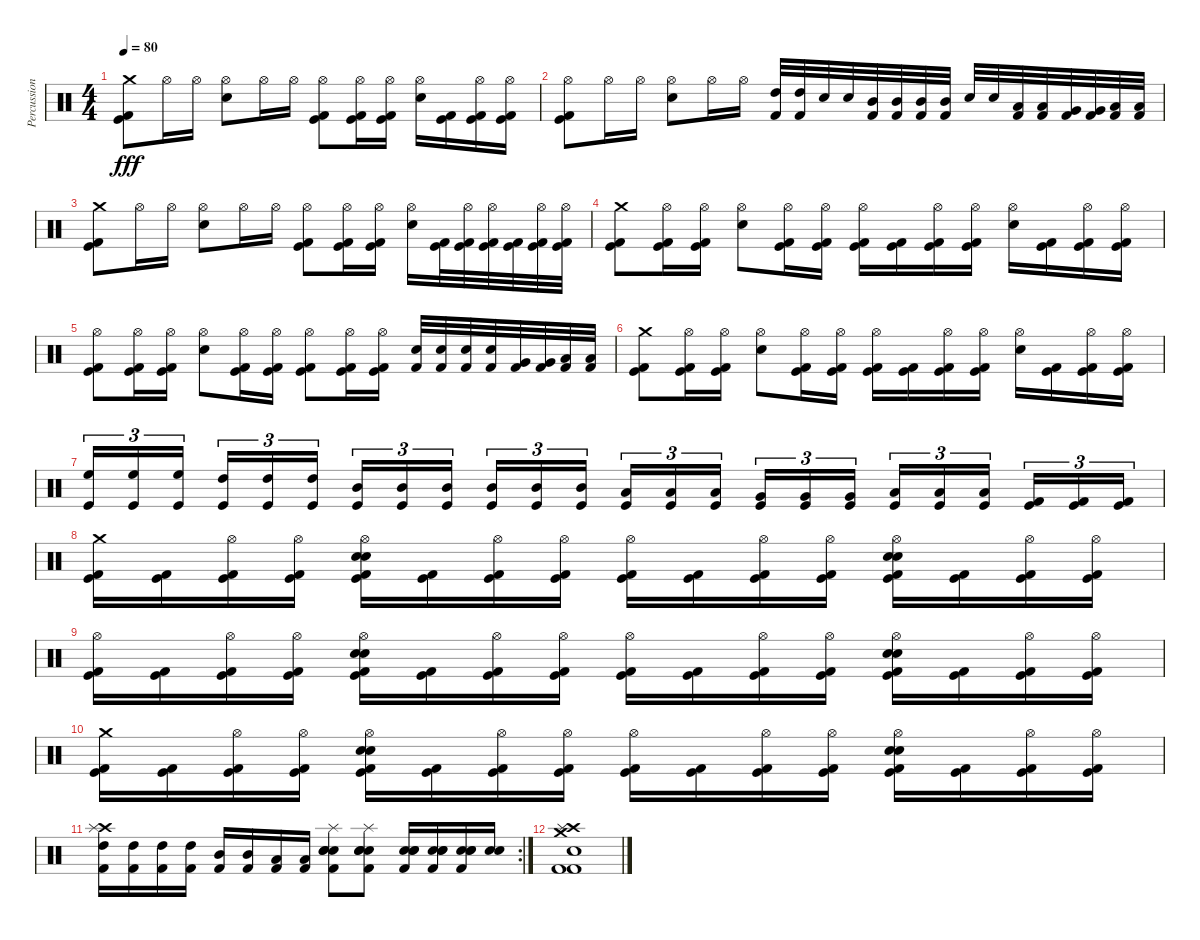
\track ("Percussion" "Percussion") {instrument percussion}
\staff {score}
\articulation defaults
\ts (4 4)
\tempo 80
\clef neutral
\ks c
("Crash medium (hit)" "Kick (hit) 2" "Kick (hit)").8{dy fff} "Hi-Hat (open)".16 "Hi-Hat (open)".16 ("Hi-Hat (open)" "Electric Snare (hit)").8 "Hi-Hat (open)".16 "Hi-Hat (open)".16 ("Hi-Hat (open)" "Kick (hit) 2" "Kick (hit)").8 ("Hi-Hat (open)" "Kick (hit) 2" "Kick (hit)").16 ("Hi-Hat (open)" "Kick (hit) 2" "Kick (hit)").16 ("Hi-Hat (open)" "Electric Snare (hit)").16 ("Kick (hit) 2" "Kick (hit)").16 ("Hi-Hat (open)" "Kick (hit) 2" "Kick (hit)").16 ("Hi-Hat (open)" "Kick (hit) 2" "Kick (hit)").16 |
("Hi-Hat (open)" "Kick (hit) 2" "Kick (hit)").8 "Hi-Hat (open)".16 "Hi-Hat (open)".16 ("Hi-Hat (open)" "Electric Snare (hit)").8 "Hi-Hat (open)".16 "Hi-Hat (open)".16 ("High Tom (hit)" "Kick (hit) 2").32 ("High Tom (hit)" "Kick (hit) 2").32 "Electric Snare (hit)".32 "Electric Snare (hit)".32 ("Mid Tom (hit)" "Kick (hit) 2").32 ("Mid Tom (hit)" "Kick (hit) 2").32 ("Mid Tom (hit)" "Kick (hit) 2").32 ("Mid Tom (hit)" "Kick (hit) 2").32 "Electric Snare (hit)".32 "Electric Snare (hit)".32 ("Low Tom (hit)" "Kick (hit) 2").32 ("Low Tom (hit)" "Kick (hit) 2").32 ("Very Low Tom (hit)" "Kick (hit) 2").32 ("Very Low Tom (hit)" "Kick (hit) 2").32 ("Low Floor Tom (hit)" "Kick (hit) 2").32 ("Low Floor Tom (hit)" "Kick (hit) 2").32 |
("Crash medium (hit)" "Kick (hit) 2" "Kick (hit)").8 "Hi-Hat (open)".16 "Hi-Hat (open)".16 ("Hi-Hat (open)" "Electric Snare (hit)").8 "Hi-Hat (open)".16 "Hi-Hat (open)".16 ("Hi-Hat (open)" "Kick (hit) 2" "Kick (hit)").8 ("Hi-Hat (open)" "Kick (hit) 2" "Kick (hit)").16 ("Hi-Hat (open)" "Kick (hit) 2" "Kick (hit)").16 ("Hi-Hat (open)" "Electric Snare (hit)").16 ("Kick (hit) 2" "Kick (hit)").32 ("Hi-Hat (open)" "Kick (hit) 2" "Kick (hit)").32 ("Hi-Hat (open)" "Kick (hit) 2" "Kick (hit)").32 ("Kick (hit) 2" "Kick (hit)").32 ("Hi-Hat (open)" "Kick (hit) 2" "Kick (hit)").32 ("Hi-Hat (open)" "Kick (hit) 2" "Kick (hit)").32 |
("Crash medium (hit)" "Kick (hit) 2" "Kick (hit)").8 ("Hi-Hat (open)" "Kick (hit) 2" "Kick (hit)").16 ("Hi-Hat (open)" "Kick (hit) 2" "Kick (hit)").16 ("Hi-Hat (open)" "Electric Snare (hit)").8 ("Hi-Hat (open)" "Kick (hit) 2" "Kick (hit)").16 ("Hi-Hat (open)" "Kick (hit) 2" "Kick (hit)").16 ("Hi-Hat (open)" "Kick (hit) 2" "Kick (hit)").16 ("Kick (hit) 2" "Kick (hit)").16 ("Hi-Hat (open)" "Kick (hit) 2" "Kick (hit)").16 ("Hi-Hat (open)" "Kick (hit) 2" "Kick (hit)").16 ("Hi-Hat (open)" "Electric Snare (hit)").16 ("Kick (hit) 2" "Kick (hit)").16 ("Hi-Hat (open)" "Kick (hit) 2" "Kick (hit)").16 ("Hi-Hat (open)" "Kick (hit) 2" "Kick (hit)").16 |
("Hi-Hat (open)" "Kick (hit) 2" "Kick (hit)").8 ("Hi-Hat (open)" "Kick (hit) 2" "Kick (hit)").16 ("Hi-Hat (open)" "Kick (hit) 2" "Kick (hit)").16 ("Hi-Hat (open)" "Electric Snare (hit)").8 ("Hi-Hat (open)" "Kick (hit) 2" "Kick (hit)").16 ("Hi-Hat (open)" "Kick (hit) 2" "Kick (hit)").16 ("Hi-Hat (open)" "Kick (hit) 2" "Kick (hit)").8 ("Hi-Hat (open)" "Kick (hit) 2" "Kick (hit)").16 ("Hi-Hat (open)" "Kick (hit) 2" "Kick (hit)").16 ("Kick (hit) 2" "Electric Snare (hit)").32 ("Kick (hit) 2" "Electric Snare (hit)").32 ("Kick (hit) 2" "Electric Snare (hit)").32 ("Kick (hit) 2" "Electric Snare (hit)").32 ("Kick (hit) 2" "Very Low Tom (hit)").32 ("Kick (hit) 2" "Very Low Tom (hit)").32 ("Kick (hit) 2" "Low Floor Tom (hit)").32 ("Kick (hit) 2" "Low Floor Tom (hit)").32 |
("Crash medium (hit)" "Kick (hit) 2" "Kick (hit)").8 ("Hi-Hat (open)" "Kick (hit) 2" "Kick (hit)").16 ("Hi-Hat (open)" "Kick (hit) 2" "Kick (hit)").16 ("Hi-Hat (open)" "Electric Snare (hit)").8 ("Hi-Hat (open)" "Kick (hit) 2" "Kick (hit)").16 ("Hi-Hat (open)" "Kick (hit) 2" "Kick (hit)").16 ("Hi-Hat (open)" "Kick (hit) 2" "Kick (hit)").16 ("Kick (hit) 2" "Kick (hit)").16 ("Hi-Hat (open)" "Kick (hit) 2" "Kick (hit)").16 ("Hi-Hat (open)" "Kick (hit) 2" "Kick (hit)").16 ("Hi-Hat (open)" "Electric Snare (hit)").16 ("Kick (hit) 2" "Kick (hit)").16 ("Hi-Hat (open)" "Kick (hit) 2" "Kick (hit)").16 ("Hi-Hat (open)" "Kick (hit) 2" "Kick (hit)").16 |
("High Floor Tom (hit)" "Kick (hit)").16{tu (3 2)} ("High Floor Tom (hit)" "Kick (hit)").16{tu (3 2)} ("High Floor Tom (hit)" "Kick (hit)").16{tu (3 2) beam splitsecondary} ("High Tom (hit)" "Kick (hit)").16{tu (3 2)} ("High Tom (hit)" "Kick (hit)").16{tu (3 2)} ("High Tom (hit)" "Kick (hit)").16{tu (3 2)} ("Mid Tom (hit)" "Kick (hit)").16{tu (3 2)} ("Mid Tom (hit)" "Kick (hit)").16{tu (3 2)} ("Mid Tom (hit)" "Kick (hit)").16{tu (3 2) beam splitsecondary} ("Mid Tom (hit)" "Kick (hit)").16{tu (3 2)} ("Mid Tom (hit)" "Kick (hit)").16{tu (3 2)} ("Mid Tom (hit)" "Kick (hit)").16{tu (3 2)} ("Low Tom (hit)" "Kick (hit)").16{tu (3 2)} ("Low Tom (hit)" "Kick (hit)").16{tu (3 2)} ("Low Tom (hit)" "Kick (hit)").16{tu (3 2) beam splitsecondary} ("Very Low Tom (hit)" "Kick (hit)").16{tu (3 2)} ("Very Low Tom (hit)" "Kick (hit)").16{tu (3 2)} ("Very Low Tom (hit)" "Kick (hit)").16{tu (3 2)} ("Low Floor Tom (hit)" "Kick (hit)").16{tu (3 2)} ("Low Floor Tom (hit)" "Kick (hit)").16{tu (3 2)} ("Low Floor Tom (hit)" "Kick (hit)").16{tu (3 2) beam splitsecondary} ("Kick (hit)" "Kick (hit) 2").16{tu (3 2)} ("Kick (hit)" "Kick (hit) 2").16{tu (3 2)} ("Kick (hit)" "Kick (hit) 2").16{tu (3 2)} |
("Crash medium (hit)" "Kick (hit) 2" "Kick (hit)").16 ("Kick (hit) 2" "Kick (hit)").16 ("Hi-Hat (open)" "Kick (hit) 2" "Kick (hit)").16 ("Hi-Hat (open)" "Kick (hit) 2" "Kick (hit)").16 ("Hi-Hat (open)" "Electric Snare (hit)" "Electric Snare (hit)" "Kick (hit) 2" "Kick (hit)").16 ("Kick (hit) 2" "Kick (hit)").16 ("Hi-Hat (open)" "Kick (hit) 2" "Kick (hit)").16 ("Hi-Hat (open)" "Kick (hit) 2" "Kick (hit)").16 ("Hi-Hat (open)" "Kick (hit) 2" "Kick (hit)").16 ("Kick (hit) 2" "Kick (hit)").16 ("Hi-Hat (open)" "Kick (hit) 2" "Kick (hit)").16 ("Hi-Hat (open)" "Kick (hit) 2" "Kick (hit)").16 ("Hi-Hat (open)" "Electric Snare (hit)" "Electric Snare (hit)" "Kick (hit) 2" "Kick (hit)").16 ("Kick (hit) 2" "Kick (hit)").16 ("Hi-Hat (open)" "Kick (hit) 2" "Kick (hit)").16 ("Hi-Hat (open)" "Kick (hit) 2" "Kick (hit)").16 |
("Hi-Hat (open)" "Kick (hit) 2" "Kick (hit)").16 ("Kick (hit) 2" "Kick (hit)").16 ("Hi-Hat (open)" "Kick (hit) 2" "Kick (hit)").16 ("Hi-Hat (open)" "Kick (hit) 2" "Kick (hit)").16 ("Hi-Hat (open)" "Electric Snare (hit)" "Electric Snare (hit)" "Kick (hit) 2" "Kick (hit)").16 ("Kick (hit) 2" "Kick (hit)").16 ("Hi-Hat (open)" "Kick (hit) 2" "Kick (hit)").16 ("Hi-Hat (open)" "Kick (hit) 2" "Kick (hit)").16 ("Hi-Hat (open)" "Kick (hit) 2" "Kick (hit)").16 ("Kick (hit) 2" "Kick (hit)").16 ("Hi-Hat (open)" "Kick (hit) 2" "Kick (hit)").16 ("Hi-Hat (open)" "Kick (hit) 2" "Kick (hit)").16 ("Hi-Hat (open)" "Electric Snare (hit)" "Electric Snare (hit)" "Kick (hit) 2" "Kick (hit)").16 ("Kick (hit) 2" "Kick (hit)").16 ("Hi-Hat (open)" "Kick (hit) 2" "Kick (hit)").16 ("Hi-Hat (open)" "Kick (hit) 2" "Kick (hit)").16 |
("Crash medium (hit)" "Kick (hit) 2" "Kick (hit)").16 ("Kick (hit) 2" "Kick (hit)").16 ("Hi-Hat (open)" "Kick (hit) 2" "Kick (hit)").16 ("Hi-Hat (open)" "Kick (hit) 2" "Kick (hit)").16 ("Hi-Hat (open)" "Electric Snare (hit)" "Electric Snare (hit)" "Kick (hit) 2" "Kick (hit)").16 ("Kick (hit) 2" "Kick (hit)").16 ("Hi-Hat (open)" "Kick (hit) 2" "Kick (hit)").16 ("Hi-Hat (open)" "Kick (hit) 2" "Kick (hit)").16 ("Hi-Hat (open)" "Kick (hit) 2" "Kick (hit)").16 ("Kick (hit) 2" "Kick (hit)").16 ("Hi-Hat (open)" "Kick (hit) 2" "Kick (hit)").16 ("Hi-Hat (open)" "Kick (hit) 2" "Kick (hit)").16 ("Hi-Hat (open)" "Electric Snare (hit)" "Electric Snare (hit)" "Kick (hit) 2" "Kick (hit)").16 ("Kick (hit) 2" "Kick (hit)").16 ("Hi-Hat (open)" "Kick (hit) 2" "Kick (hit)").16 ("Hi-Hat (open)" "Kick (hit) 2" "Kick (hit)").16 |
\rc 2
("High Tom (hit)" "Crash high (hit)" "Splash (hit)" "Kick (hit) 2").16 ("High Tom (hit)" "Kick (hit) 2").16 ("High Tom (hit)" "Kick (hit) 2").16 ("High Tom (hit)" "Kick (hit) 2").16 ("Mid Tom (hit)" "Kick (hit) 2").16 ("Mid Tom (hit)" "Kick (hit) 2").16 ("Low Tom (hit)" "Kick (hit) 2").16 ("Low Tom (hit)" "Kick (hit) 2").16 ("Splash (hit)" "Electric Snare (hit)" "Electric Snare (hit)" "Electric Snare (hit)" "Kick (hit) 2").8 ("Splash (hit)" "Electric Snare (hit)" "Electric Snare (hit)" "Electric Snare (hit)" "Kick (hit) 2").8 ("Electric Snare (hit)" "Electric Snare (hit)" "Electric Snare (hit)" "Kick (hit) 2").16 ("Electric Snare (hit)" "Electric Snare (hit)" "Electric Snare (hit)" "Kick (hit) 2").16 ("Electric Snare (hit)" "Electric Snare (hit)" "Electric Snare (hit)" "Kick (hit) 2").16 ("Electric Snare (hit)" "Electric Snare (hit)").16 |
("Crash medium (hit)" "Crash high (hit)" "Splash (hit)" "Electric Snare (hit)" "Kick (hit) 2" "Kick (hit) 2").1
